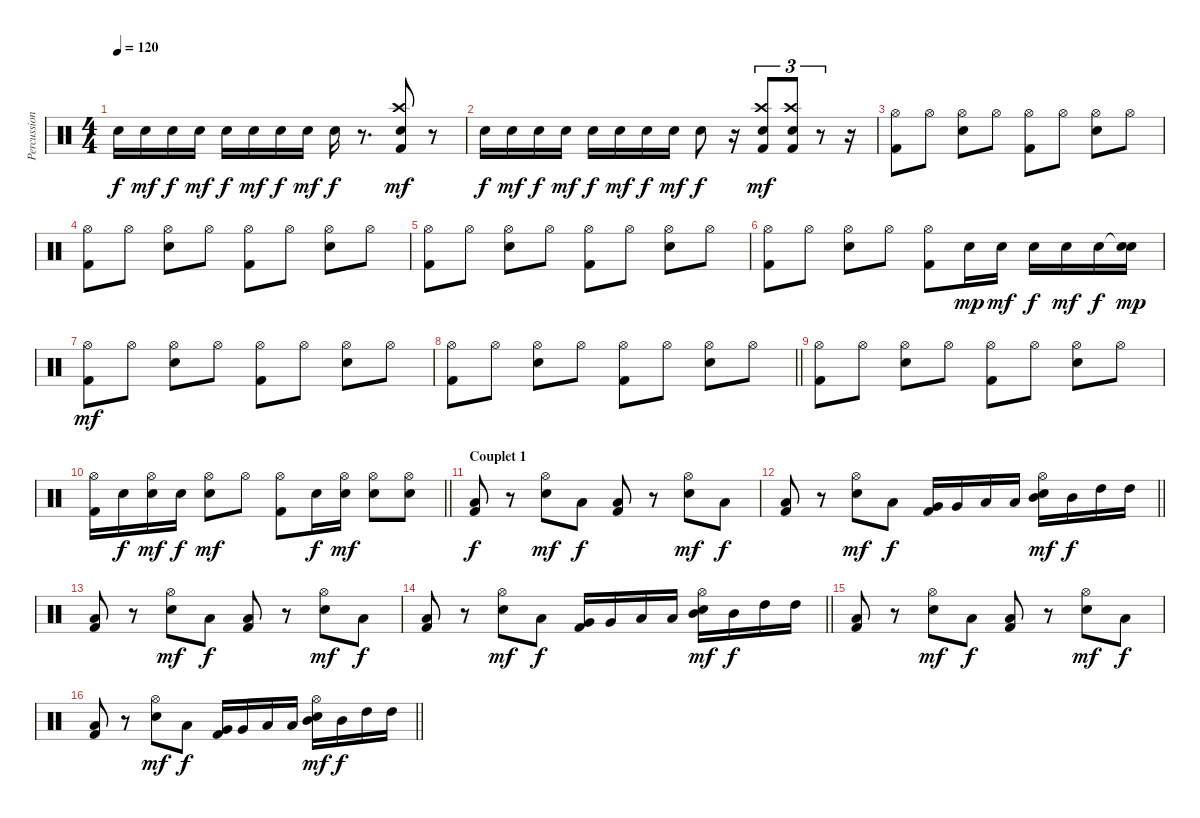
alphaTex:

\track ("Percussions" "Percussion") {instrument percussion}
\staff
\articulation defaults
\ts (4 4)
\tempo 120
\clef neutral
\ks c "Electric Snare (hit)".16{dy f} "Electric Snare (hit)".16{dy mf} "Electric Snare (hit)".16{dy f} "Electric Snare (hit)".16{dy mf} "Electric Snare (hit)".16{dy f} "Electric Snare (hit)".16{dy mf} "Electric Snare (hit)".16{dy f} "Electric Snare (hit)".16{dy mf} "Electric Snare (hit)".16{dy f}
r.8{d} ("Crash high (hit)" "Electric Snare (hit)" "Kick (hit) 2").8{dy mf} r.8 |
"Electric Snare (hit)".16{dy f} "Electric Snare (hit)".16{dy mf} "Electric Snare (hit)".16{dy f} "Electric Snare (hit)".16{dy mf} "Electric Snare (hit)".16{dy f} "Electric Snare (hit)".16{dy mf} "Electric Snare (hit)".16{dy f} "Electric Snare (hit)".16{dy mf} "Electric Snare (hit)".8{dy f} r.16 ("Crash high (hit)" "Electric Snare (hit)" "Kick (hit) 2").8{tu (3 2) dy mf} ("Crash high (hit)" "Electric Snare (hit)" "Kick (hit) 2").8{tu (3 2)} r.8{tu (3 2)} r.16 |
("Hi-Hat (open)" "Kick (hit) 2").8 "Hi-Hat (open)".8 ("Hi-Hat (open)" "Electric Snare (hit)").8 "Hi-Hat (open)".8 ("Hi-Hat (open)" "Kick (hit) 2").8 "Hi-Hat (open)".8 ("Hi-Hat (open)" "Electric Snare (hit)").8 "Hi-Hat (open)".8 |
("Hi-Hat (open)" "Kick (hit) 2").8 "Hi-Hat (open)".8 ("Hi-Hat (open)" "Electric Snare (hit)").8 "Hi-Hat (open)".8 ("Hi-Hat (open)" "Kick (hit) 2").8 "Hi-Hat (open)".8 ("Hi-Hat (open)" "Electric Snare (hit)").8 "Hi-Hat (open)".8 |
("Hi-Hat (open)" "Kick (hit) 2").8 "Hi-Hat (open)".8 ("Hi-Hat (open)" "Electric Snare (hit)").8 "Hi-Hat (open)".8 ("Hi-Hat (open)" "Kick (hit) 2").8 "Hi-Hat (open)".8 ("Hi-Hat (open)" "Electric Snare (hit)").8 "Hi-Hat (open)".8 |
("Hi-Hat (open)" "Kick (hit) 2").8 "Hi-Hat (open)".8 ("Hi-Hat (open)" "Electric Snare (hit)").8 "Hi-Hat (open)".8 ("Hi-Hat (open)" "Kick (hit) 2").8 "Electric Snare (hit)".16{dy mp} "Electric Snare (hit)".16{dy mf} "Electric Snare (hit)".16{dy f} "Electric Snare (hit)".16{dy mf} "Electric Snare (hit)".16{dy f} ("Snare (hit)"{t} "Electric Snare (hit)").16{dy mp} |
("Hi-Hat (open)" "Kick (hit) 2").8{dy mf} "Hi-Hat (open)".8 ("Hi-Hat (open)" "Electric Snare (hit)").8 "Hi-Hat (open)".8 ("Hi-Hat (open)" "Kick (hit) 2").8 "Hi-Hat (open)".8 ("Hi-Hat (open)" "Electric Snare (hit)").8 "Hi-Hat (open)".8 |
\barLineRight lightlight
("Hi-Hat (open)" "Kick (hit) 2").8 "Hi-Hat (open)".8 ("Hi-Hat (open)" "Electric Snare (hit)").8 "Hi-Hat (open)".8 ("Hi-Hat (open)" "Kick (hit) 2").8 "Hi-Hat (open)".8 ("Hi-Hat (open)" "Electric Snare (hit)").8 "Hi-Hat (open)".8 |
("Hi-Hat (open)" "Kick (hit) 2").8 "Hi-Hat (open)".8 ("Hi-Hat (open)" "Electric Snare (hit)").8 "Hi-Hat (open)".8 ("Hi-Hat (open)" "Kick (hit) 2").8 "Hi-Hat (open)".8 ("Hi-Hat (open)" "Electric Snare (hit)").8 "Hi-Hat (open)".8 |
\barLineRight lightlight
("Hi-Hat (open)" "Kick (hit) 2").16 "Electric Snare (hit)".16{dy f} ("Hi-Hat (open)" "Electric Snare (hit)").16{dy mf} "Electric Snare (hit)".16{dy f} ("Hi-Hat (open)" "Electric Snare (hit)").8{dy mf} "Hi-Hat (open)".8 ("Hi-Hat (open)" "Kick (hit) 2").8 "Electric Snare (hit)".16{dy f} ("Hi-Hat (open)" "Electric Snare (hit)").16{dy mf} ("Hi-Hat (open)" "Electric Snare (hit)").8 ("Hi-Hat (open)" "Electric Snare (hit)").8 |
\section ("" "Couplet 1")
("Kick (hit) 2" "Low Floor Tom (hit)").8{dy f} r.8 ("Hi-Hat (open)" "Electric Snare (hit)").8{dy mf} "Low Floor Tom (hit)".8{dy f} ("Kick (hit) 2" "Low Floor Tom (hit)").8 r.8 ("Hi-Hat (open)" "Electric Snare (hit)").8{dy mf} "Low Floor Tom (hit)".8{dy f} |
\barLineRight lightlight
("Kick (hit) 2" "Low Floor Tom (hit)").8 r.8 ("Hi-Hat (open)" "Electric Snare (hit)").8{dy mf} "Low Floor Tom (hit)".8{dy f} ("Kick (hit) 2" "Very Low Tom (hit)").16 "Very Low Tom (hit)".16 "Low Tom (hit)".16 "Low Tom (hit)".16 ("Hi-Hat (open)" "Electric Snare (hit)" "Mid Tom (hit)").16{dy mf} "Mid Tom (hit)".16{dy f} "High Tom (hit)".16 "High Tom (hit)".16 |
("Kick (hit) 2" "Low Floor Tom (hit)").8 r.8 ("Hi-Hat (open)" "Electric Snare (hit)").8{dy mf} "Low Floor Tom (hit)".8{dy f} ("Kick (hit) 2" "Low Floor Tom (hit)").8 r.8 ("Hi-Hat (open)" "Electric Snare (hit)").8{dy mf} "Low Floor Tom (hit)".8{dy f} |
\barLineRight lightlight
("Kick (hit) 2" "Low Floor Tom (hit)").8 r.8 ("Hi-Hat (open)" "Electric Snare (hit)").8{dy mf} "Low Floor Tom (hit)".8{dy f} ("Kick (hit) 2" "Very Low Tom (hit)").16 "Very Low Tom (hit)".16 "Low Tom (hit)".16 "Low Tom (hit)".16 ("Hi-Hat (open)" "Electric Snare (hit)" "Mid Tom (hit)").16{dy mf} "Mid Tom (hit)".16{dy f} "High Tom (hit)".16 "High Tom (hit)".16 |
("Kick (hit) 2" "Low Floor Tom (hit)").8 r.8 ("Hi-Hat (open)" "Electric Snare (hit)").8{dy mf} "Low Floor Tom (hit)".8{dy f} ("Kick (hit) 2" "Low Floor Tom (hit)").8 r.8 ("Hi-Hat (open)" "Electric Snare (hit)").8{dy mf} "Low Floor Tom (hit)".8{dy f} |
\barLineRight lightlight
("Kick (hit) 2" "Low Floor Tom (hit)").8 r.8 ("Hi-Hat (open)" "Electric Snare (hit)").8{dy mf} "Low Floor Tom (hit)".8{dy f} ("Kick (hit) 2" "Very Low Tom (hit)").16 "Very Low Tom (hit)".16 "Low Tom (hit)".16 "Low Tom (hit)".16 ("Hi-Hat (open)" "Electric Snare (hit)" "Mid Tom (hit)").16{dy mf} "Mid Tom (hit)".16{dy f} "High Tom (hit)".16 "High Tom (hit)".16
